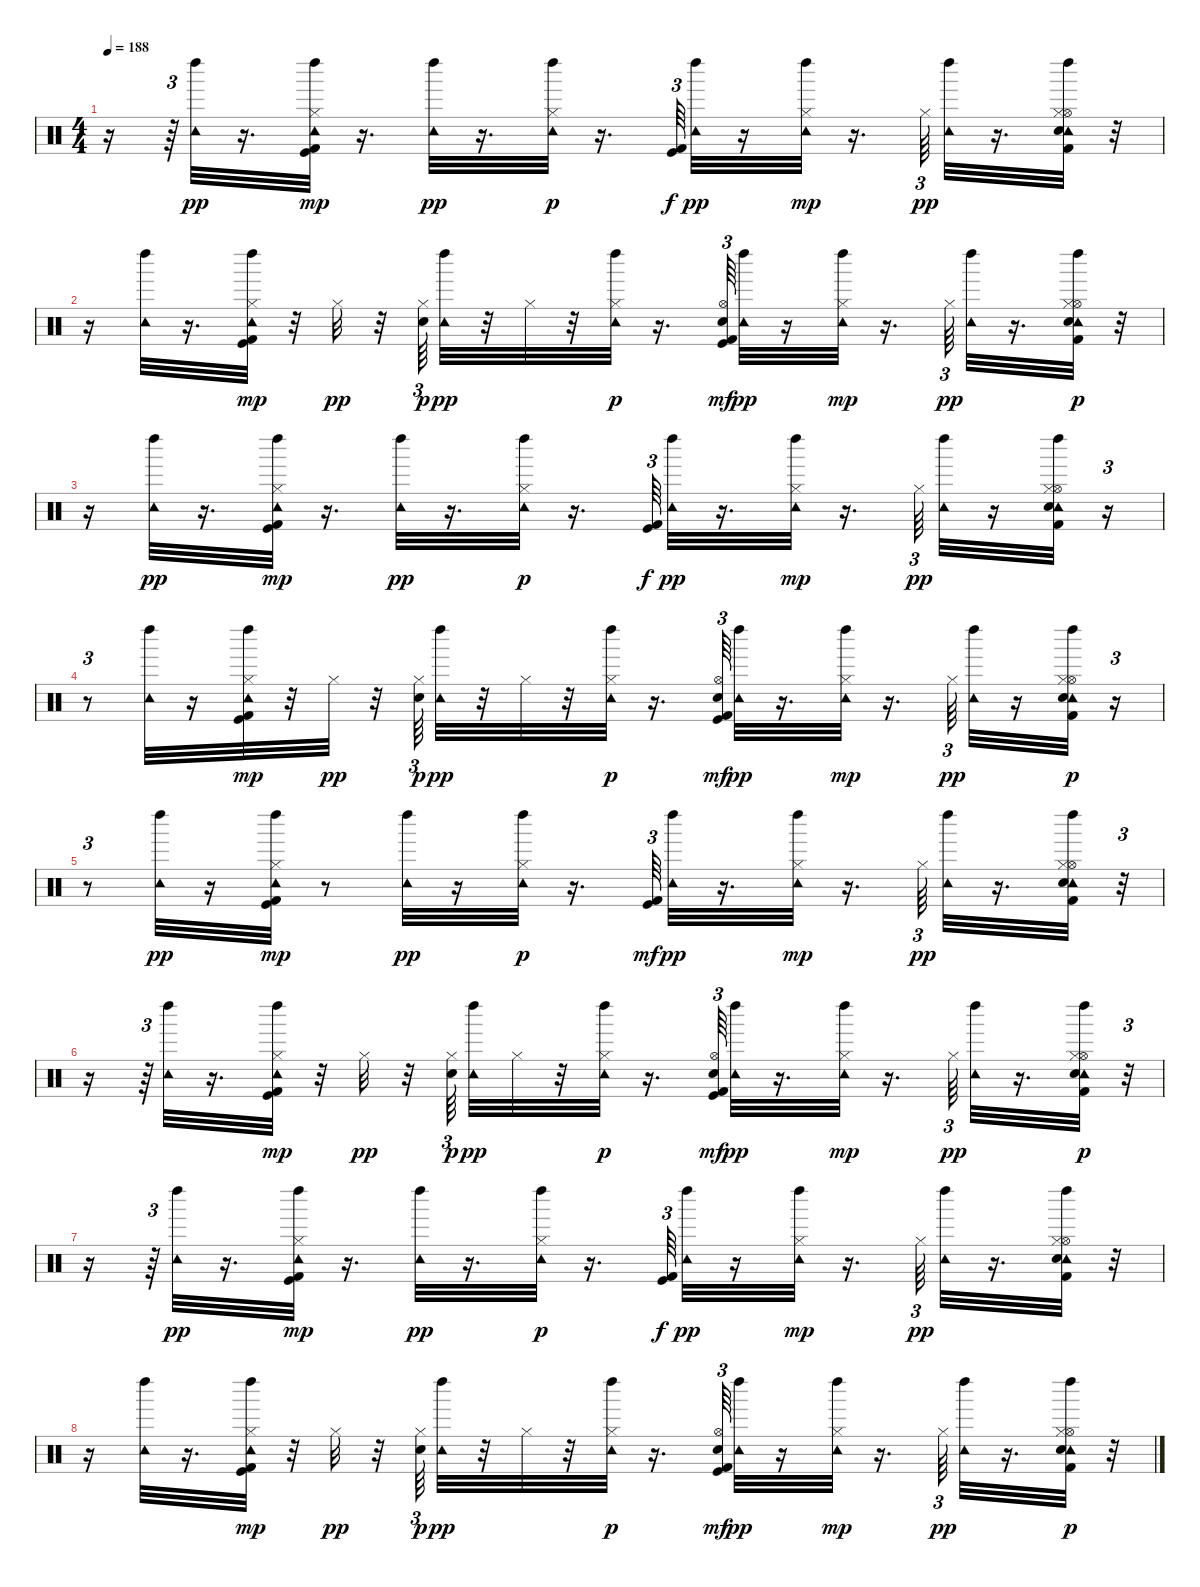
\track "" {instrument percussion}
\staff {score}
\articulation defaults
\ts (4 4)
\tempo 188
\clef neutral
\ks c
r.16{dy p} r.64{tu (3 2)} ("Tambourine (hit)" "Left Maraca (hit)").32{dy pp} r.16{d} ("Kick (hit) 2" "Hi-Hat (closed)" "Tambourine (hit)" "Left Maraca (hit)" "Kick (hit)").32{dy mp} r.16{d} ("Tambourine (hit)" "Left Maraca (hit)").32{dy pp} r.16{d} ("Hi-Hat (closed)" "Tambourine (hit)" "Left Maraca (hit)").32{dy p} r.16{d} ("Kick (hit) 2" "Kick (hit)").64{tu (3 2) dy f} ("Tambourine (hit)" "Left Maraca (hit)").32{dy pp} r.16 ("Hi-Hat (closed)" "Tambourine (hit)" "Left Maraca (hit)").32{dy mp} r.16{d} "Hi-Hat (closed)".64{tu (3 2) dy pp} ("Tambourine (hit)" "Left Maraca (hit)").32 r.16{d} ("Kick (hit) 2" "Hi-Hat (open)" "Tambourine (hit)" "Left Maraca (hit)" "Electric Snare (hit)" "Hi-Hat (closed)").32 r.32 |
r.16 ("Tambourine (hit)" "Left Maraca (hit)").32 r.16{d} ("Kick (hit) 2" "Hi-Hat (closed)" "Tambourine (hit)" "Left Maraca (hit)" "Kick (hit)").32{dy mp} r.32 "Hi-Hat (closed)".32{dy pp} r.32 ("Electric Snare (hit)" "Hi-Hat (closed)").64{tu (3 2) dy p} ("Tambourine (hit)" "Left Maraca (hit)").32{dy pp} r.32 "Hi-Hat (closed)".32 r.32 ("Hi-Hat (closed)" "Tambourine (hit)" "Left Maraca (hit)").32{dy p} r.16{d} ("Kick (hit) 2" "Hi-Hat (open)" "Electric Snare (hit)" "Kick (hit)").64{tu (3 2) dy mf} ("Tambourine (hit)" "Left Maraca (hit)").32{dy pp} r.16 ("Hi-Hat (closed)" "Tambourine (hit)" "Left Maraca (hit)").32{dy mp} r.16{d} "Hi-Hat (closed)".64{tu (3 2) dy pp} ("Tambourine (hit)" "Left Maraca (hit)").32 r.16{d} ("Kick (hit) 2" "Hi-Hat (open)" "Tambourine (hit)" "Left Maraca (hit)" "Electric Snare (hit)" "Hi-Hat (closed)").32{dy p} r.32 |
r.16 ("Tambourine (hit)" "Left Maraca (hit)").32{dy pp} r.16{d} ("Kick (hit) 2" "Hi-Hat (closed)" "Tambourine (hit)" "Left Maraca (hit)" "Kick (hit)").32{dy mp} r.16{d} ("Tambourine (hit)" "Left Maraca (hit)").32{dy pp} r.16{d} ("Hi-Hat (closed)" "Tambourine (hit)" "Left Maraca (hit)").32{dy p} r.16{d} ("Kick (hit) 2" "Kick (hit)").64{tu (3 2) dy f} ("Tambourine (hit)" "Left Maraca (hit)").32{dy pp} r.16{d} ("Hi-Hat (closed)" "Tambourine (hit)" "Left Maraca (hit)").32{dy mp} r.16{d} "Hi-Hat (closed)".64{tu (3 2) dy pp} ("Tambourine (hit)" "Left Maraca (hit)").32 r.16 ("Kick (hit) 2" "Hi-Hat (open)" "Tambourine (hit)" "Left Maraca (hit)" "Electric Snare (hit)" "Hi-Hat (closed)").32 r.16{tu (3 2)} |
r.8{tu (3 2)} ("Tambourine (hit)" "Left Maraca (hit)").32 r.16 ("Kick (hit) 2" "Hi-Hat (closed)" "Tambourine (hit)" "Left Maraca (hit)" "Kick (hit)").32{dy mp} r.32 "Hi-Hat (closed)".32{dy pp} r.32 ("Electric Snare (hit)" "Hi-Hat (closed)").64{tu (3 2) dy p} ("Tambourine (hit)" "Left Maraca (hit)").32{dy pp} r.32 "Hi-Hat (closed)".32 r.32 ("Hi-Hat (closed)" "Tambourine (hit)" "Left Maraca (hit)").32{dy p} r.16{d} ("Kick (hit) 2" "Hi-Hat (open)" "Electric Snare (hit)" "Kick (hit)").64{tu (3 2) dy mf} ("Tambourine (hit)" "Left Maraca (hit)").32{dy pp} r.16{d} ("Hi-Hat (closed)" "Tambourine (hit)" "Left Maraca (hit)").32{dy mp} r.16{d} "Hi-Hat (closed)".64{tu (3 2) dy pp} ("Tambourine (hit)" "Left Maraca (hit)").32 r.16 ("Kick (hit) 2" "Hi-Hat (open)" "Tambourine (hit)" "Left Maraca (hit)" "Electric Snare (hit)" "Hi-Hat (closed)").32{dy p} r.16{tu (3 2)} |
r.8{tu (3 2)} ("Tambourine (hit)" "Left Maraca (hit)").32{dy pp} r.16 ("Kick (hit) 2" "Hi-Hat (closed)" "Tambourine (hit)" "Left Maraca (hit)" "Kick (hit)").32{dy mp} r.8 ("Tambourine (hit)" "Left Maraca (hit)").32{dy pp} r.16 ("Hi-Hat (closed)" "Tambourine (hit)" "Left Maraca (hit)").32{dy p} r.16{d} ("Kick (hit) 2" "Kick (hit)").64{tu (3 2) dy mf} ("Tambourine (hit)" "Left Maraca (hit)").32{dy pp} r.16{d} ("Hi-Hat (closed)" "Tambourine (hit)" "Left Maraca (hit)").32{dy mp} r.16{d} "Hi-Hat (closed)".64{tu (3 2) dy pp} ("Tambourine (hit)" "Left Maraca (hit)").32 r.16{d} ("Kick (hit) 2" "Hi-Hat (open)" "Tambourine (hit)" "Left Maraca (hit)" "Electric Snare (hit)" "Hi-Hat (closed)").32 r.32{tu (3 2)} |
r.16 r.64{tu (3 2)} ("Tambourine (hit)" "Left Maraca (hit)").32 r.16{d} ("Kick (hit) 2" "Hi-Hat (closed)" "Tambourine (hit)" "Left Maraca (hit)" "Kick (hit)").32{dy mp} r.32 "Hi-Hat (closed)".32{dy pp} r.32 ("Electric Snare (hit)" "Hi-Hat (closed)").64{tu (3 2) dy p beam splitsecondary} ("Tambourine (hit)" "Left Maraca (hit)").32{dy pp} "Hi-Hat (closed)".32 r.32 ("Hi-Hat (closed)" "Tambourine (hit)" "Left Maraca (hit)").32{dy p} r.16{d} ("Kick (hit) 2" "Hi-Hat (open)" "Electric Snare (hit)" "Kick (hit)").64{tu (3 2) dy mf} ("Tambourine (hit)" "Left Maraca (hit)").32{dy pp} r.16{d} ("Hi-Hat (closed)" "Tambourine (hit)" "Left Maraca (hit)").32{dy mp} r.16{d} "Hi-Hat (closed)".64{tu (3 2) dy pp} ("Tambourine (hit)" "Left Maraca (hit)").32 r.16{d} ("Kick (hit) 2" "Hi-Hat (open)" "Tambourine (hit)" "Left Maraca (hit)" "Electric Snare (hit)" "Hi-Hat (closed)").32{dy p} r.32{tu (3 2)} |
r.16 r.64{tu (3 2)} ("Tambourine (hit)" "Left Maraca (hit)").32{dy pp} r.16{d} ("Kick (hit) 2" "Hi-Hat (closed)" "Tambourine (hit)" "Left Maraca (hit)" "Kick (hit)").32{dy mp} r.16{d} ("Tambourine (hit)" "Left Maraca (hit)").32{dy pp} r.16{d} ("Hi-Hat (closed)" "Tambourine (hit)" "Left Maraca (hit)").32{dy p} r.16{d} ("Kick (hit) 2" "Kick (hit)").64{tu (3 2) dy f} ("Tambourine (hit)" "Left Maraca (hit)").32{dy pp} r.16 ("Hi-Hat (closed)" "Tambourine (hit)" "Left Maraca (hit)").32{dy mp} r.16{d} "Hi-Hat (closed)".64{tu (3 2) dy pp} ("Tambourine (hit)" "Left Maraca (hit)").32 r.16{d} ("Kick (hit) 2" "Hi-Hat (open)" "Tambourine (hit)" "Left Maraca (hit)" "Electric Snare (hit)" "Hi-Hat (closed)").32 r.32 |
r.16 ("Tambourine (hit)" "Left Maraca (hit)").32 r.16{d} ("Kick (hit) 2" "Hi-Hat (closed)" "Tambourine (hit)" "Left Maraca (hit)" "Kick (hit)").32{dy mp} r.32 "Hi-Hat (closed)".32{dy pp} r.32 ("Electric Snare (hit)" "Hi-Hat (closed)").64{tu (3 2) dy p} ("Tambourine (hit)" "Left Maraca (hit)").32{dy pp} r.32 "Hi-Hat (closed)".32 r.32 ("Hi-Hat (closed)" "Tambourine (hit)" "Left Maraca (hit)").32{dy p} r.16{d} ("Kick (hit) 2" "Hi-Hat (open)" "Electric Snare (hit)" "Kick (hit)").64{tu (3 2) dy mf} ("Tambourine (hit)" "Left Maraca (hit)").32{dy pp} r.16 ("Hi-Hat (closed)" "Tambourine (hit)" "Left Maraca (hit)").32{dy mp} r.16{d} "Hi-Hat (closed)".64{tu (3 2) dy pp} ("Tambourine (hit)" "Left Maraca (hit)").32 r.16{d} ("Kick (hit) 2" "Hi-Hat (open)" "Tambourine (hit)" "Left Maraca (hit)" "Electric Snare (hit)" "Hi-Hat (closed)").32{dy p} r.32
